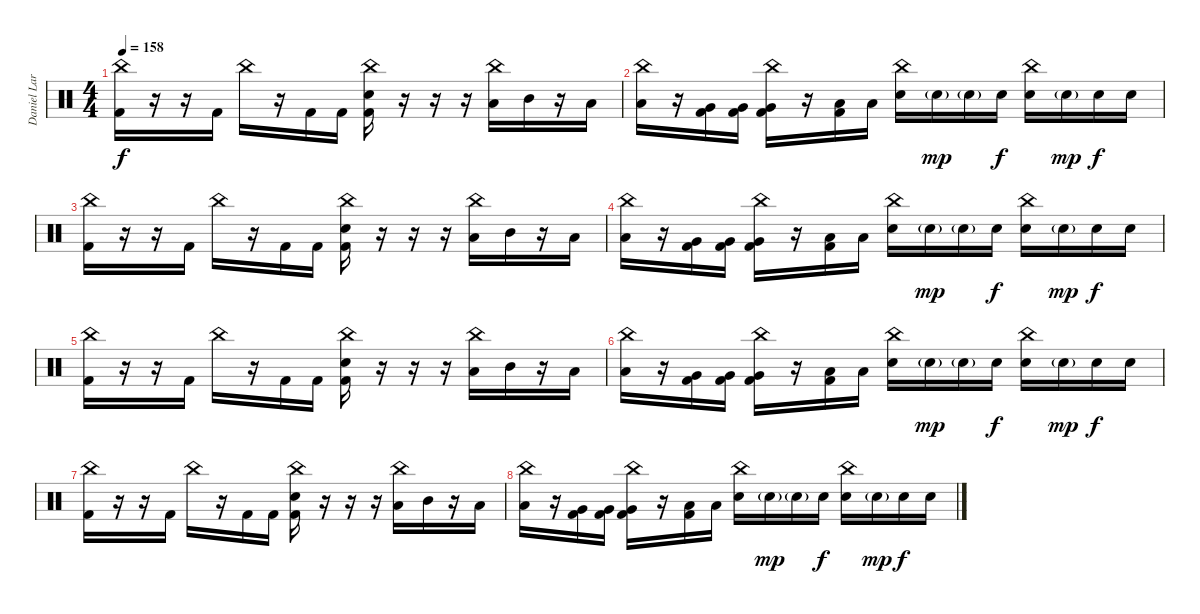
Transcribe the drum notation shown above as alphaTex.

\track ("Daniel Larsen" "Daniel Lar") {instrument percussion}
\staff {score}
\articulation defaults
\ts (4 4)
\tempo 158
\clef neutral
\ks c
("China (hit)" "Kick (hit) 2").16{dy f} r.16 r.16 "Kick (hit) 2".16 "China (hit)".16 r.16 "Kick (hit) 2".16 "Kick (hit) 2".16 ("China (hit)" "Electric Snare (hit)" "Kick (hit) 2").16 r.16 r.16 r.16 ("China (hit)" "Low Tom (hit)").16 "Mid Tom (hit)".16 r.16 "Low Tom (hit)".16 |
("China (hit)" "Low Tom (hit)").16 r.16 ("Very Low Tom (hit)" "Kick (hit) 2").16 ("Very Low Tom (hit)" "Kick (hit) 2").16 ("China (hit)" "Very Low Tom (hit)" "Kick (hit) 2").16 r.16 ("Low Floor Tom (hit)" "Kick (hit) 2").16 "Low Floor Tom (hit)".16 ("China (hit)" "Electric Snare (hit)").16 "Electric Snare (hit)"{g}.16{dy mp} "Electric Snare (hit)"{g}.16 "Electric Snare (hit)".16{dy f} ("China (hit)" "Electric Snare (hit)").16 "Electric Snare (hit)"{g}.16{dy mp} "Electric Snare (hit)".16{dy f} "Electric Snare (hit)".16 |
("China (hit)" "Kick (hit) 2").16 r.16 r.16 "Kick (hit) 2".16 "China (hit)".16 r.16 "Kick (hit) 2".16 "Kick (hit) 2".16 ("China (hit)" "Electric Snare (hit)" "Kick (hit) 2").16 r.16 r.16 r.16 ("China (hit)" "Low Tom (hit)").16 "Mid Tom (hit)".16 r.16 "Low Tom (hit)".16 |
("China (hit)" "Low Tom (hit)").16 r.16 ("Very Low Tom (hit)" "Kick (hit) 2").16 ("Very Low Tom (hit)" "Kick (hit) 2").16 ("China (hit)" "Very Low Tom (hit)" "Kick (hit) 2").16 r.16 ("Low Floor Tom (hit)" "Kick (hit) 2").16 "Low Floor Tom (hit)".16 ("China (hit)" "Electric Snare (hit)").16 "Electric Snare (hit)"{g}.16{dy mp} "Electric Snare (hit)"{g}.16 "Electric Snare (hit)".16{dy f} ("China (hit)" "Electric Snare (hit)").16 "Electric Snare (hit)"{g}.16{dy mp} "Electric Snare (hit)".16{dy f} "Electric Snare (hit)".16 |
("China (hit)" "Kick (hit) 2").16 r.16 r.16 "Kick (hit) 2".16 "China (hit)".16 r.16 "Kick (hit) 2".16 "Kick (hit) 2".16 ("China (hit)" "Electric Snare (hit)" "Kick (hit) 2").16 r.16 r.16 r.16 ("China (hit)" "Low Tom (hit)").16 "Mid Tom (hit)".16 r.16 "Low Tom (hit)".16 |
("China (hit)" "Low Tom (hit)").16 r.16 ("Very Low Tom (hit)" "Kick (hit) 2").16 ("Very Low Tom (hit)" "Kick (hit) 2").16 ("China (hit)" "Very Low Tom (hit)" "Kick (hit) 2").16 r.16 ("Low Floor Tom (hit)" "Kick (hit) 2").16 "Low Floor Tom (hit)".16 ("China (hit)" "Electric Snare (hit)").16 "Electric Snare (hit)"{g}.16{dy mp} "Electric Snare (hit)"{g}.16 "Electric Snare (hit)".16{dy f} ("China (hit)" "Electric Snare (hit)").16 "Electric Snare (hit)"{g}.16{dy mp} "Electric Snare (hit)".16{dy f} "Electric Snare (hit)".16 |
("China (hit)" "Kick (hit) 2").16 r.16 r.16 "Kick (hit) 2".16 "China (hit)".16 r.16 "Kick (hit) 2".16 "Kick (hit) 2".16 ("China (hit)" "Electric Snare (hit)" "Kick (hit) 2").16 r.16 r.16 r.16 ("China (hit)" "Low Tom (hit)").16 "Mid Tom (hit)".16 r.16 "Low Tom (hit)".16 |
("China (hit)" "Low Tom (hit)").16 r.16 ("Very Low Tom (hit)" "Kick (hit) 2").16 ("Very Low Tom (hit)" "Kick (hit) 2").16 ("China (hit)" "Very Low Tom (hit)" "Kick (hit) 2").16 r.16 ("Low Floor Tom (hit)" "Kick (hit) 2").16 "Low Floor Tom (hit)".16 ("China (hit)" "Electric Snare (hit)").16 "Electric Snare (hit)"{g}.16{dy mp} "Electric Snare (hit)"{g}.16 "Electric Snare (hit)".16{dy f} ("China (hit)" "Electric Snare (hit)").16 "Electric Snare (hit)"{g}.16{dy mp} "Electric Snare (hit)".16{dy f} "Electric Snare (hit)".16
